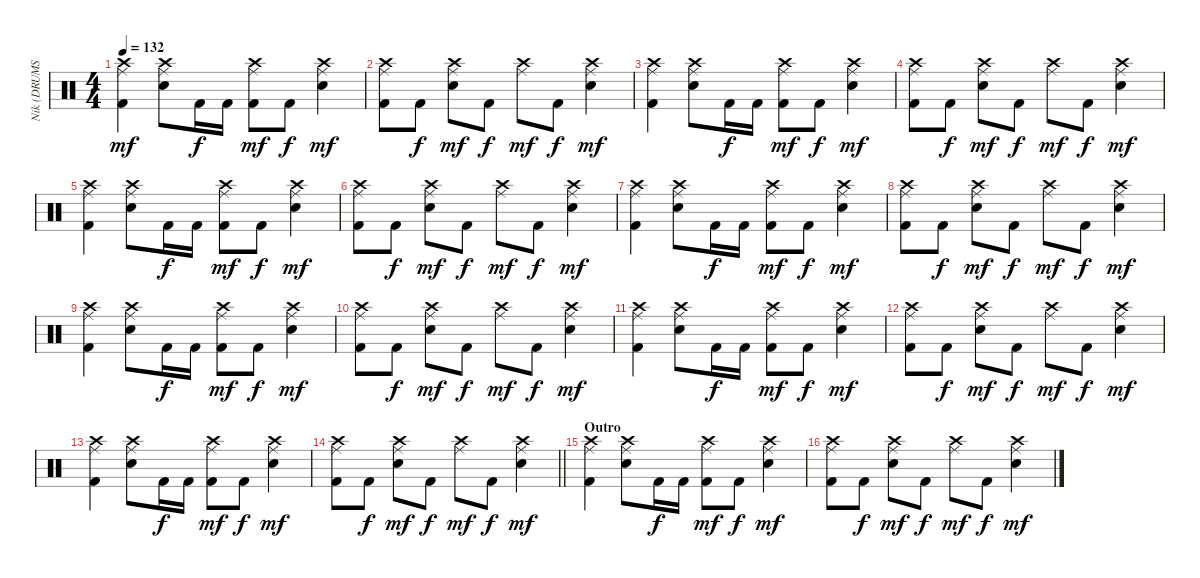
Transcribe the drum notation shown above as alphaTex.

\track ("Nik (DRUMS)" "Nik (DRUMS") {instrument percussion}
\staff {score}
\articulation defaults
\ts (4 4)
\tempo 132
\clef neutral
\ks c
("Crash high (hit)" "Ride (middle)" "Kick (hit) 2").4{dy mf} ("Crash high (hit)" "Ride (middle)" "Electric Snare (hit)").8 "Kick (hit) 2".16{dy f} "Kick (hit) 2".16 ("Crash high (hit)" "Ride (middle)" "Kick (hit) 2").8{dy mf} "Kick (hit) 2".8{dy f} ("Crash high (hit)" "Ride (middle)" "Electric Snare (hit)").4{dy mf} |
("Crash high (hit)" "Ride (middle)" "Kick (hit) 2").8 "Kick (hit) 2".8{dy f} ("Crash high (hit)" "Ride (middle)" "Electric Snare (hit)").8{dy mf} "Kick (hit) 2".8{dy f} ("Crash high (hit)" "Ride (middle)").8{dy mf} "Kick (hit) 2".8{dy f} ("Crash high (hit)" "Ride (middle)" "Electric Snare (hit)").4{dy mf} |
("Crash high (hit)" "Ride (middle)" "Kick (hit) 2").4 ("Crash high (hit)" "Ride (middle)" "Electric Snare (hit)").8 "Kick (hit) 2".16{dy f} "Kick (hit) 2".16 ("Crash high (hit)" "Ride (middle)" "Kick (hit) 2").8{dy mf} "Kick (hit) 2".8{dy f} ("Crash high (hit)" "Ride (middle)" "Electric Snare (hit)").4{dy mf} |
("Crash high (hit)" "Ride (middle)" "Kick (hit) 2").8 "Kick (hit) 2".8{dy f} ("Crash high (hit)" "Ride (middle)" "Electric Snare (hit)").8{dy mf} "Kick (hit) 2".8{dy f} ("Crash high (hit)" "Ride (middle)").8{dy mf} "Kick (hit) 2".8{dy f} ("Crash high (hit)" "Ride (middle)" "Electric Snare (hit)").4{dy mf} |
("Crash high (hit)" "Ride (middle)" "Kick (hit) 2").4 ("Crash high (hit)" "Ride (middle)" "Electric Snare (hit)").8 "Kick (hit) 2".16{dy f} "Kick (hit) 2".16 ("Crash high (hit)" "Ride (middle)" "Kick (hit) 2").8{dy mf} "Kick (hit) 2".8{dy f} ("Crash high (hit)" "Ride (middle)" "Electric Snare (hit)").4{dy mf} |
("Crash high (hit)" "Ride (middle)" "Kick (hit) 2").8 "Kick (hit) 2".8{dy f} ("Crash high (hit)" "Ride (middle)" "Electric Snare (hit)").8{dy mf} "Kick (hit) 2".8{dy f} ("Crash high (hit)" "Ride (middle)").8{dy mf} "Kick (hit) 2".8{dy f} ("Crash high (hit)" "Ride (middle)" "Electric Snare (hit)").4{dy mf} |
("Crash high (hit)" "Ride (middle)" "Kick (hit) 2").4 ("Crash high (hit)" "Ride (middle)" "Electric Snare (hit)").8 "Kick (hit) 2".16{dy f} "Kick (hit) 2".16 ("Crash high (hit)" "Ride (middle)" "Kick (hit) 2").8{dy mf} "Kick (hit) 2".8{dy f} ("Crash high (hit)" "Ride (middle)" "Electric Snare (hit)").4{dy mf} |
("Crash high (hit)" "Ride (middle)" "Kick (hit) 2").8 "Kick (hit) 2".8{dy f} ("Crash high (hit)" "Ride (middle)" "Electric Snare (hit)").8{dy mf} "Kick (hit) 2".8{dy f} ("Crash high (hit)" "Ride (middle)").8{dy mf} "Kick (hit) 2".8{dy f} ("Crash high (hit)" "Ride (middle)" "Electric Snare (hit)").4{dy mf} |
("Crash high (hit)" "Ride (middle)" "Kick (hit) 2").4 ("Crash high (hit)" "Ride (middle)" "Electric Snare (hit)").8 "Kick (hit) 2".16{dy f} "Kick (hit) 2".16 ("Crash high (hit)" "Ride (middle)" "Kick (hit) 2").8{dy mf} "Kick (hit) 2".8{dy f} ("Crash high (hit)" "Ride (middle)" "Electric Snare (hit)").4{dy mf} |
("Crash high (hit)" "Ride (middle)" "Kick (hit) 2").8 "Kick (hit) 2".8{dy f} ("Crash high (hit)" "Ride (middle)" "Electric Snare (hit)").8{dy mf} "Kick (hit) 2".8{dy f} ("Crash high (hit)" "Ride (middle)").8{dy mf} "Kick (hit) 2".8{dy f} ("Crash high (hit)" "Ride (middle)" "Electric Snare (hit)").4{dy mf} |
("Crash high (hit)" "Ride (middle)" "Kick (hit) 2").4 ("Crash high (hit)" "Ride (middle)" "Electric Snare (hit)").8 "Kick (hit) 2".16{dy f} "Kick (hit) 2".16 ("Crash high (hit)" "Ride (middle)" "Kick (hit) 2").8{dy mf} "Kick (hit) 2".8{dy f} ("Crash high (hit)" "Ride (middle)" "Electric Snare (hit)").4{dy mf} |
("Crash high (hit)" "Ride (middle)" "Kick (hit) 2").8 "Kick (hit) 2".8{dy f} ("Crash high (hit)" "Ride (middle)" "Electric Snare (hit)").8{dy mf} "Kick (hit) 2".8{dy f} ("Crash high (hit)" "Ride (middle)").8{dy mf} "Kick (hit) 2".8{dy f} ("Crash high (hit)" "Ride (middle)" "Electric Snare (hit)").4{dy mf} |
("Crash high (hit)" "Ride (middle)" "Kick (hit) 2").4 ("Crash high (hit)" "Ride (middle)" "Electric Snare (hit)").8 "Kick (hit) 2".16{dy f} "Kick (hit) 2".16 ("Crash high (hit)" "Ride (middle)" "Kick (hit) 2").8{dy mf} "Kick (hit) 2".8{dy f} ("Crash high (hit)" "Ride (middle)" "Electric Snare (hit)").4{dy mf} |
\barLineRight lightlight
("Crash high (hit)" "Ride (middle)" "Kick (hit) 2").8 "Kick (hit) 2".8{dy f} ("Crash high (hit)" "Ride (middle)" "Electric Snare (hit)").8{dy mf} "Kick (hit) 2".8{dy f} ("Crash high (hit)" "Ride (middle)").8{dy mf} "Kick (hit) 2".8{dy f} ("Crash high (hit)" "Ride (middle)" "Electric Snare (hit)").4{dy mf} |
\section ("" "Outro")
("Crash high (hit)" "Ride (middle)" "Kick (hit) 2").4 ("Crash high (hit)" "Ride (middle)" "Electric Snare (hit)").8 "Kick (hit) 2".16{dy f} "Kick (hit) 2".16 ("Crash high (hit)" "Ride (middle)" "Kick (hit) 2").8{dy mf} "Kick (hit) 2".8{dy f} ("Crash high (hit)" "Ride (middle)" "Electric Snare (hit)").4{dy mf} |
("Crash high (hit)" "Ride (middle)" "Kick (hit) 2").8 "Kick (hit) 2".8{dy f} ("Crash high (hit)" "Ride (middle)" "Electric Snare (hit)").8{dy mf} "Kick (hit) 2".8{dy f} ("Crash high (hit)" "Ride (middle)").8{dy mf} "Kick (hit) 2".8{dy f} ("Crash high (hit)" "Ride (middle)" "Electric Snare (hit)").4{dy mf}
